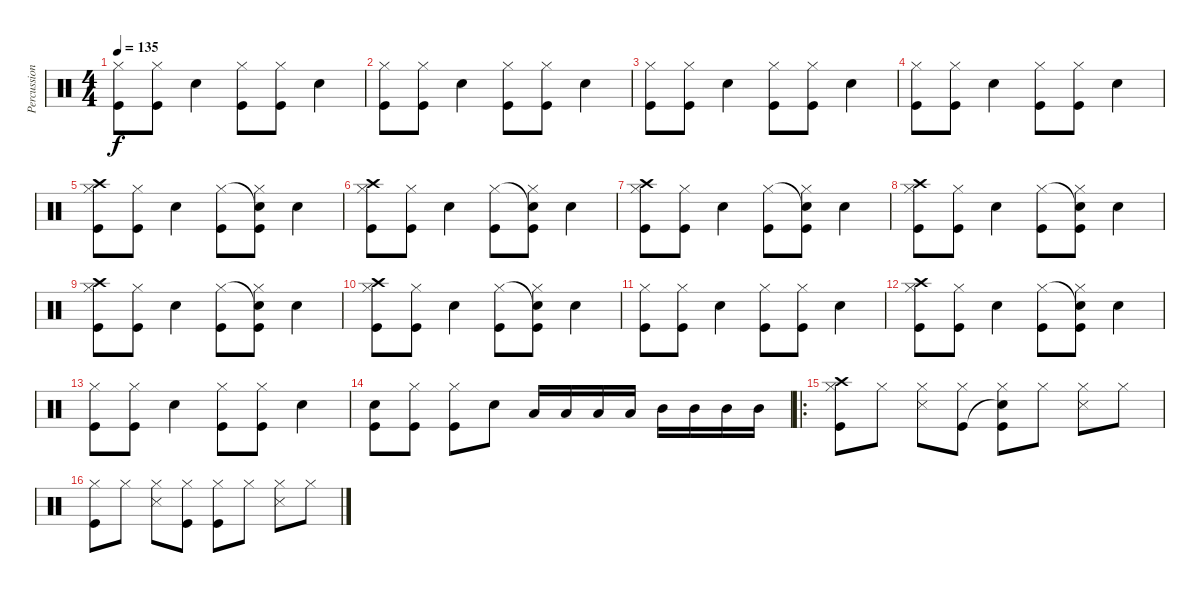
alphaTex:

\track ("Percussion" "Percussion") {instrument percussion}
\staff {score}
\articulation defaults
\ts (4 4)
\tempo 135
\clef neutral
\ks c
("Hi-Hat (closed)" "Kick (hit)").8{dy f} ("Hi-Hat (closed)" "Kick (hit)").8 "Electric Snare (hit)".4 ("Hi-Hat (closed)" "Kick (hit)").8 ("Hi-Hat (closed)" "Kick (hit)").8 "Electric Snare (hit)".4 |
("Hi-Hat (closed)" "Kick (hit)").8 ("Hi-Hat (closed)" "Kick (hit)").8 "Electric Snare (hit)".4 ("Hi-Hat (closed)" "Kick (hit)").8 ("Hi-Hat (closed)" "Kick (hit)").8 "Electric Snare (hit)".4 |
("Hi-Hat (closed)" "Kick (hit)").8 ("Hi-Hat (closed)" "Kick (hit)").8 "Electric Snare (hit)".4 ("Hi-Hat (closed)" "Kick (hit)").8 ("Hi-Hat (closed)" "Kick (hit)").8 "Electric Snare (hit)".4 |
("Hi-Hat (closed)" "Kick (hit)").8 ("Hi-Hat (closed)" "Kick (hit)").8 "Electric Snare (hit)".4 ("Hi-Hat (closed)" "Kick (hit)").8 ("Hi-Hat (closed)" "Kick (hit)").8 "Electric Snare (hit)".4 |
("Crash high (hit)" "Hi-Hat (closed)" "Kick (hit)").8 ("Hi-Hat (closed)" "Kick (hit)").8 "Electric Snare (hit)".4 ("Hi-Hat (closed)" "Kick (hit)").8 ("Snare (hit)"{t} "Hi-Hat (closed)" "Kick (hit)").8 "Electric Snare (hit)".4 |
("Crash high (hit)" "Hi-Hat (closed)" "Kick (hit)").8 ("Hi-Hat (closed)" "Kick (hit)").8 "Electric Snare (hit)".4 ("Hi-Hat (closed)" "Kick (hit)").8 ("Snare (hit)"{t} "Hi-Hat (closed)" "Kick (hit)").8 "Electric Snare (hit)".4 |
("Crash high (hit)" "Hi-Hat (closed)" "Kick (hit)").8 ("Hi-Hat (closed)" "Kick (hit)").8 "Electric Snare (hit)".4 ("Hi-Hat (closed)" "Kick (hit)").8 ("Snare (hit)"{t} "Hi-Hat (closed)" "Kick (hit)").8 "Electric Snare (hit)".4 |
("Crash high (hit)" "Hi-Hat (closed)" "Kick (hit)").8 ("Hi-Hat (closed)" "Kick (hit)").8 "Electric Snare (hit)".4 ("Hi-Hat (closed)" "Kick (hit)").8 ("Snare (hit)"{t} "Hi-Hat (closed)" "Kick (hit)").8 "Electric Snare (hit)".4 |
("Crash high (hit)" "Hi-Hat (closed)" "Kick (hit)").8 ("Hi-Hat (closed)" "Kick (hit)").8 "Electric Snare (hit)".4 ("Hi-Hat (closed)" "Kick (hit)").8 ("Snare (hit)"{t} "Hi-Hat (closed)" "Kick (hit)").8 "Electric Snare (hit)".4 |
("Crash high (hit)" "Hi-Hat (closed)" "Kick (hit)").8 ("Hi-Hat (closed)" "Kick (hit)").8 "Electric Snare (hit)".4 ("Hi-Hat (closed)" "Kick (hit)").8 ("Snare (hit)"{t} "Hi-Hat (closed)" "Kick (hit)").8 "Electric Snare (hit)".4 |
("Hi-Hat (closed)" "Kick (hit)").8 ("Hi-Hat (closed)" "Kick (hit)").8 "Electric Snare (hit)".4 ("Hi-Hat (closed)" "Kick (hit)").8 ("Hi-Hat (closed)" "Kick (hit)").8 "Electric Snare (hit)".4 |
("Crash high (hit)" "Hi-Hat (closed)" "Kick (hit)").8 ("Hi-Hat (closed)" "Kick (hit)").8 "Electric Snare (hit)".4 ("Hi-Hat (closed)" "Kick (hit)").8 ("Snare (hit)"{t} "Hi-Hat (closed)" "Kick (hit)").8 "Electric Snare (hit)".4 |
("Hi-Hat (closed)" "Kick (hit)").8 ("Hi-Hat (closed)" "Kick (hit)").8 "Electric Snare (hit)".4 ("Hi-Hat (closed)" "Kick (hit)").8 ("Hi-Hat (closed)" "Kick (hit)").8 "Electric Snare (hit)".4 |
("Snare (hit) 2" "Kick (hit)").8 ("Hi-Hat (closed)" "Kick (hit)").8 ("Hi-Hat (closed)" "Kick (hit)").8 "Electric Snare (hit)".8 "Low Tom (hit)".16 "Low Tom (hit)".16 "Low Tom (hit)".16 "Low Tom (hit)".16 "Mid Tom (hit)".16 "Mid Tom (hit)".16 "Mid Tom (hit)".16 "Mid Tom (hit)".16 |
\ro
("Hi-Hat (closed)" "Crash high (hit)" "Kick (hit)").8 "Hi-Hat (closed)".8 ("Hi-Hat (closed)" "Snare (side stick) 3").8 ("Hi-Hat (closed)" "Kick (hit)").8 ("Hi-Hat (closed)" "Snare (hit)"{t} "Kick (hit)").8 "Hi-Hat (closed)".8 ("Hi-Hat (closed)" "Snare (side stick) 3").8 "Hi-Hat (closed)".8 |
("Hi-Hat (closed)" "Kick (hit)").8 "Hi-Hat (closed)".8 ("Hi-Hat (closed)" "Snare (side stick) 3").8 ("Hi-Hat (closed)" "Kick (hit)").8 ("Hi-Hat (closed)" "Kick (hit)").8 "Hi-Hat (closed)".8 ("Hi-Hat (closed)" "Snare (side stick) 3").8 "Hi-Hat (closed)".8
